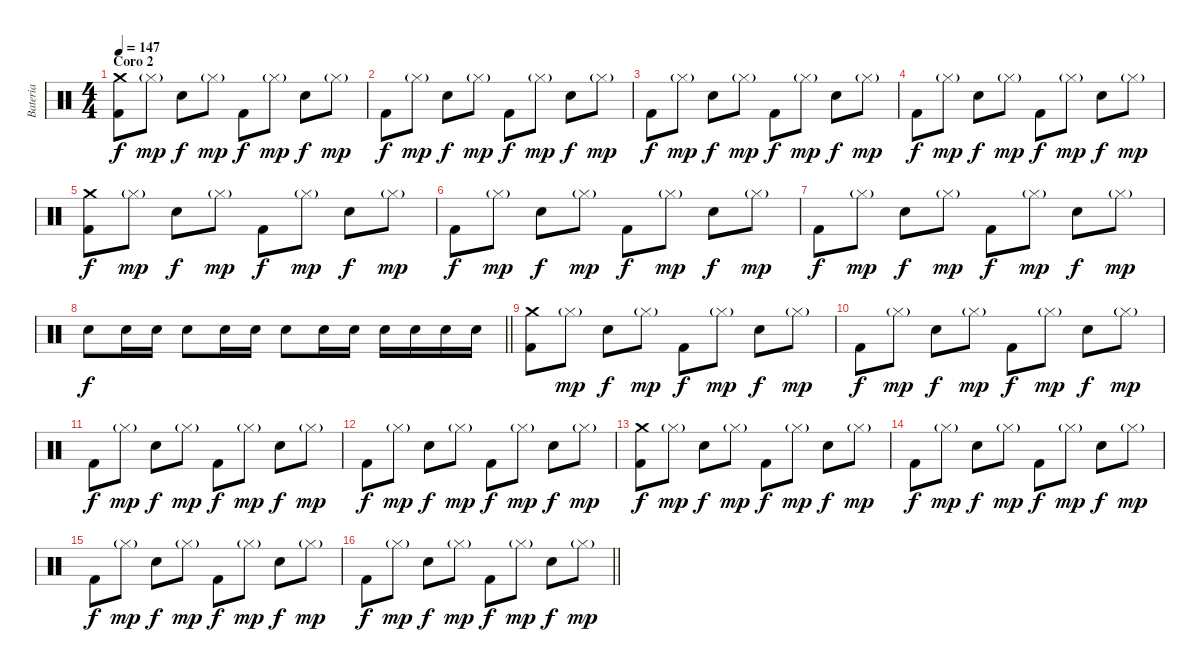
\track ("Bateria" "Bateria") {instrument percussion}
\staff {score}
\articulation defaults
\ts (4 4)
\section ("" "Coro 2")
\tempo 147
\clef neutral
\ks c
("Crash medium (hit)" "Kick (hit) 2").8{dy f} "Hi-Hat (closed)"{g}.8{dy mp} "Electric Snare (hit)".8{dy f} "Hi-Hat (closed)"{g}.8{dy mp} "Kick (hit) 2".8{dy f} "Hi-Hat (closed)"{g}.8{dy mp} "Electric Snare (hit)".8{dy f} "Hi-Hat (closed)"{g}.8{dy mp} |
"Kick (hit) 2".8{dy f} "Hi-Hat (closed)"{g}.8{dy mp} "Electric Snare (hit)".8{dy f} "Hi-Hat (closed)"{g}.8{dy mp} "Kick (hit) 2".8{dy f} "Hi-Hat (closed)"{g}.8{dy mp} "Electric Snare (hit)".8{dy f} "Hi-Hat (closed)"{g}.8{dy mp} |
"Kick (hit) 2".8{dy f} "Hi-Hat (closed)"{g}.8{dy mp} "Electric Snare (hit)".8{dy f} "Hi-Hat (closed)"{g}.8{dy mp} "Kick (hit) 2".8{dy f} "Hi-Hat (closed)"{g}.8{dy mp} "Electric Snare (hit)".8{dy f} "Hi-Hat (closed)"{g}.8{dy mp} |
"Kick (hit) 2".8{dy f} "Hi-Hat (closed)"{g}.8{dy mp} "Electric Snare (hit)".8{dy f} "Hi-Hat (closed)"{g}.8{dy mp} "Kick (hit) 2".8{dy f} "Hi-Hat (closed)"{g}.8{dy mp} "Electric Snare (hit)".8{dy f} "Hi-Hat (closed)"{g}.8{dy mp} |
("Crash medium (hit)" "Kick (hit) 2").8{dy f} "Hi-Hat (closed)"{g}.8{dy mp} "Electric Snare (hit)".8{dy f} "Hi-Hat (closed)"{g}.8{dy mp} "Kick (hit) 2".8{dy f} "Hi-Hat (closed)"{g}.8{dy mp} "Electric Snare (hit)".8{dy f} "Hi-Hat (closed)"{g}.8{dy mp} |
"Kick (hit) 2".8{dy f} "Hi-Hat (closed)"{g}.8{dy mp} "Electric Snare (hit)".8{dy f} "Hi-Hat (closed)"{g}.8{dy mp} "Kick (hit) 2".8{dy f} "Hi-Hat (closed)"{g}.8{dy mp} "Electric Snare (hit)".8{dy f} "Hi-Hat (closed)"{g}.8{dy mp} |
"Kick (hit) 2".8{dy f} "Hi-Hat (closed)"{g}.8{dy mp} "Electric Snare (hit)".8{dy f} "Hi-Hat (closed)"{g}.8{dy mp} "Kick (hit) 2".8{dy f} "Hi-Hat (closed)"{g}.8{dy mp} "Electric Snare (hit)".8{dy f} "Hi-Hat (closed)"{g}.8{dy mp} |
\barLineRight lightlight "Electric Snare (hit)".8{dy f} "Electric Snare (hit)".16 "Electric Snare (hit)".16 "Electric Snare (hit)".8 "Electric Snare (hit)".16 "Electric Snare (hit)".16 "Electric Snare (hit)".8 "Electric Snare (hit)".16 "Electric Snare (hit)".16 "Electric Snare (hit)".16 "Electric Snare (hit)".16 "Electric Snare (hit)".16 "Electric Snare (hit)".16
|
\section ("" "")
("Crash medium (hit)" "Kick (hit) 2").8 "Hi-Hat (closed)"{g}.8{dy mp} "Electric Snare (hit)".8{dy f} "Hi-Hat (closed)"{g}.8{dy mp} "Kick (hit) 2".8{dy f} "Hi-Hat (closed)"{g}.8{dy mp} "Electric Snare (hit)".8{dy f} "Hi-Hat (closed)"{g}.8{dy mp} |
"Kick (hit) 2".8{dy f} "Hi-Hat (closed)"{g}.8{dy mp} "Electric Snare (hit)".8{dy f} "Hi-Hat (closed)"{g}.8{dy mp} "Kick (hit) 2".8{dy f} "Hi-Hat (closed)"{g}.8{dy mp} "Electric Snare (hit)".8{dy f} "Hi-Hat (closed)"{g}.8{dy mp} |
"Kick (hit) 2".8{dy f} "Hi-Hat (closed)"{g}.8{dy mp} "Electric Snare (hit)".8{dy f} "Hi-Hat (closed)"{g}.8{dy mp} "Kick (hit) 2".8{dy f} "Hi-Hat (closed)"{g}.8{dy mp} "Electric Snare (hit)".8{dy f} "Hi-Hat (closed)"{g}.8{dy mp} |
"Kick (hit) 2".8{dy f} "Hi-Hat (closed)"{g}.8{dy mp} "Electric Snare (hit)".8{dy f} "Hi-Hat (closed)"{g}.8{dy mp} "Kick (hit) 2".8{dy f} "Hi-Hat (closed)"{g}.8{dy mp} "Electric Snare (hit)".8{dy f} "Hi-Hat (closed)"{g}.8{dy mp} |
("Crash medium (hit)" "Kick (hit) 2").8{dy f} "Hi-Hat (closed)"{g}.8{dy mp} "Electric Snare (hit)".8{dy f} "Hi-Hat (closed)"{g}.8{dy mp} "Kick (hit) 2".8{dy f} "Hi-Hat (closed)"{g}.8{dy mp} "Electric Snare (hit)".8{dy f} "Hi-Hat (closed)"{g}.8{dy mp} |
"Kick (hit) 2".8{dy f} "Hi-Hat (closed)"{g}.8{dy mp} "Electric Snare (hit)".8{dy f} "Hi-Hat (closed)"{g}.8{dy mp} "Kick (hit) 2".8{dy f} "Hi-Hat (closed)"{g}.8{dy mp} "Electric Snare (hit)".8{dy f} "Hi-Hat (closed)"{g}.8{dy mp} |
"Kick (hit) 2".8{dy f} "Hi-Hat (closed)"{g}.8{dy mp} "Electric Snare (hit)".8{dy f} "Hi-Hat (closed)"{g}.8{dy mp} "Kick (hit) 2".8{dy f} "Hi-Hat (closed)"{g}.8{dy mp} "Electric Snare (hit)".8{dy f} "Hi-Hat (closed)"{g}.8{dy mp} |
\barLineRight lightlight "Kick (hit) 2".8{dy f} "Hi-Hat (closed)"{g}.8{dy mp} "Electric Snare (hit)".8{dy f} "Hi-Hat (closed)"{g}.8{dy mp} "Kick (hit) 2".8{dy f} "Hi-Hat (closed)"{g}.8{dy mp} "Electric Snare (hit)".8{dy f} "Hi-Hat (closed)"{g}.8{dy mp}
